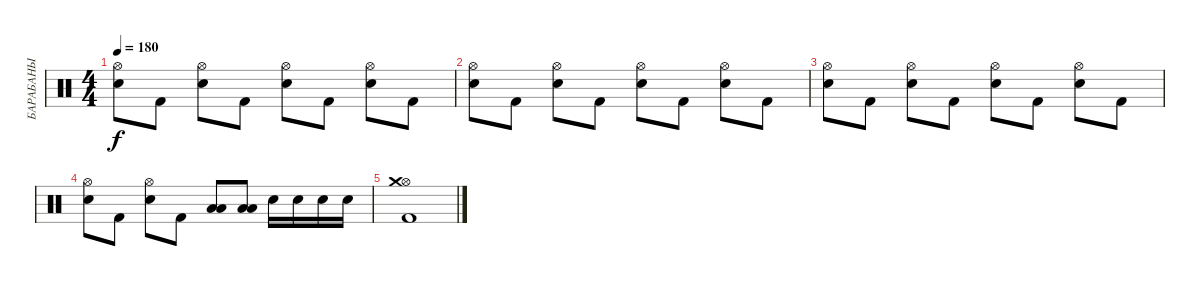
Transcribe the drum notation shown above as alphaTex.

\track ("БАРАБАНЫ" "БАРАБАНЫ") {instrument percussion}
\staff {score}
\articulation defaults
\ts (4 4)
\tempo 180
\clef neutral
\ks c
("Hi-Hat (open)" "Electric Snare (hit)").8{dy f} "Kick (hit) 2".8 ("Hi-Hat (open)" "Electric Snare (hit)").8 "Kick (hit) 2".8 ("Hi-Hat (open)" "Electric Snare (hit)").8 "Kick (hit) 2".8 ("Hi-Hat (open)" "Electric Snare (hit)").8 "Kick (hit) 2".8 |
("Hi-Hat (open)" "Electric Snare (hit)").8 "Kick (hit) 2".8 ("Hi-Hat (open)" "Electric Snare (hit)").8 "Kick (hit) 2".8 ("Hi-Hat (open)" "Electric Snare (hit)").8 "Kick (hit) 2".8 ("Hi-Hat (open)" "Electric Snare (hit)").8 "Kick (hit) 2".8 |
("Hi-Hat (open)" "Electric Snare (hit)").8 "Kick (hit) 2".8 ("Hi-Hat (open)" "Electric Snare (hit)").8 "Kick (hit) 2".8 ("Hi-Hat (open)" "Electric Snare (hit)").8 "Kick (hit) 2".8 ("Hi-Hat (open)" "Electric Snare (hit)").8 "Kick (hit) 2".8 |
("Hi-Hat (open)" "Electric Snare (hit)").8 "Kick (hit) 2".8 ("Hi-Hat (open)" "Electric Snare (hit)").8 "Kick (hit) 2".8 ("Low Tom (hit)" "Low Floor Tom (hit)").8 ("Low Tom (hit)" "Low Floor Tom (hit)").8 "Electric Snare (hit)".16 "Electric Snare (hit)".16 "Electric Snare (hit)".16 "Electric Snare (hit)".16 |
("Hi-Hat (open)" "Crash medium (hit)" "Kick (hit) 2").1
